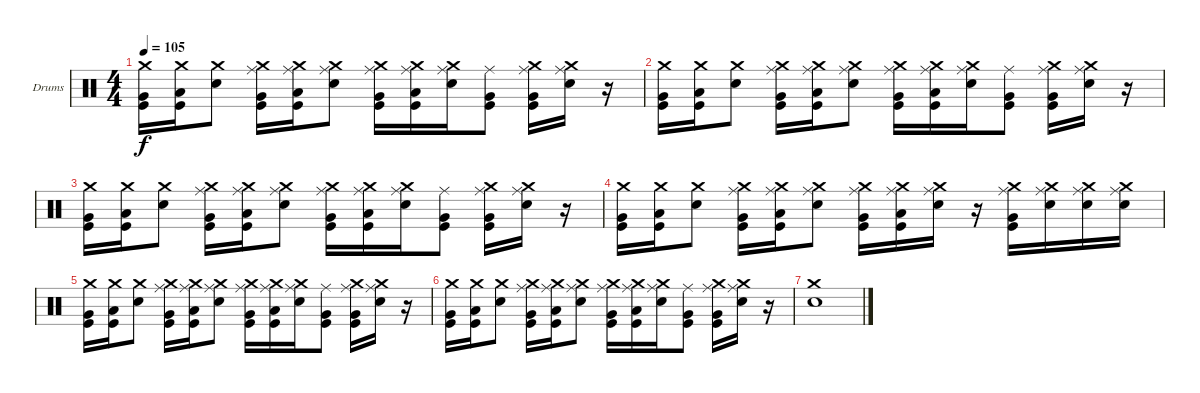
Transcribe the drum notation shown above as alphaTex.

\defaultSystemsLayout 4
\bracketExtendMode groupsimilarinstruments
\firstSystemTrackNameOrientation horizontal
\otherSystemsTrackNameOrientation horizontal
\track ("Steve" "Drums") {instrument percussion}
\staff {score}
\articulation defaults
\ts (4 4)
\tempo 105
\clef neutral
\ks c
("Very Low Tom (hit)" "Crash medium (hit)" "Kick (hit)").16{dy f} ("Low Tom (hit)" "Crash medium (hit)" "Kick (hit)").16 ("Snare (hit) 2" "Crash medium (hit)").8 ("Very Low Tom (hit)" "Ride (middle)" "Kick (hit)" "Crash medium (hit)").16 ("Low Tom (hit)" "Ride (middle)" "Kick (hit)" "Crash medium (hit)").16 ("Snare (hit) 2" "Ride (middle)" "Crash medium (hit)").8 ("Very Low Tom (hit)" "Ride (middle)" "Kick (hit)" "Crash medium (hit)").16 ("Low Tom (hit)" "Ride (middle)" "Kick (hit)" "Crash medium (hit)").16 ("Snare (hit) 2" "Ride (middle)" "Crash medium (hit)").16 ("Very Low Tom (hit)" "Ride (middle)" "Kick (hit)").8 ("Very Low Tom (hit)" "Ride (middle)" "Kick (hit)" "Crash medium (hit)").16 ("Snare (hit) 2" "Ride (middle)" "Crash medium (hit)").16 r.16 |
("Very Low Tom (hit)" "Crash medium (hit)" "Kick (hit)").16 ("Low Tom (hit)" "Crash medium (hit)" "Kick (hit)").16 ("Snare (hit) 2" "Crash medium (hit)").8 ("Very Low Tom (hit)" "Ride (middle)" "Kick (hit)" "Crash medium (hit)").16 ("Low Tom (hit)" "Ride (middle)" "Kick (hit)" "Crash medium (hit)").16 ("Snare (hit) 2" "Ride (middle)" "Crash medium (hit)").8 ("Very Low Tom (hit)" "Ride (middle)" "Kick (hit)" "Crash medium (hit)").16 ("Low Tom (hit)" "Ride (middle)" "Kick (hit)" "Crash medium (hit)").16 ("Snare (hit) 2" "Ride (middle)" "Crash medium (hit)").16 ("Very Low Tom (hit)" "Ride (middle)" "Kick (hit)").8 ("Very Low Tom (hit)" "Ride (middle)" "Kick (hit)" "Crash medium (hit)").16 ("Snare (hit) 2" "Ride (middle)" "Crash medium (hit)").16 r.16 |
("Very Low Tom (hit)" "Crash medium (hit)" "Kick (hit)").16 ("Low Tom (hit)" "Crash medium (hit)" "Kick (hit)").16 ("Snare (hit) 2" "Crash medium (hit)").8 ("Very Low Tom (hit)" "Ride (middle)" "Kick (hit)" "Crash medium (hit)").16 ("Low Tom (hit)" "Ride (middle)" "Kick (hit)" "Crash medium (hit)").16 ("Snare (hit) 2" "Ride (middle)" "Crash medium (hit)").8 ("Very Low Tom (hit)" "Ride (middle)" "Kick (hit)" "Crash medium (hit)").16 ("Low Tom (hit)" "Ride (middle)" "Kick (hit)" "Crash medium (hit)").16 ("Snare (hit) 2" "Ride (middle)" "Crash medium (hit)").16 ("Very Low Tom (hit)" "Ride (middle)" "Kick (hit)").8 ("Very Low Tom (hit)" "Ride (middle)" "Kick (hit)" "Crash medium (hit)").16 ("Snare (hit) 2" "Ride (middle)" "Crash medium (hit)").16 r.16 |
("Very Low Tom (hit)" "Crash medium (hit)" "Kick (hit)").16 ("Low Tom (hit)" "Crash medium (hit)" "Kick (hit)").16 ("Snare (hit) 2" "Crash medium (hit)").8 ("Very Low Tom (hit)" "Ride (middle)" "Kick (hit)" "Crash medium (hit)").16 ("Low Tom (hit)" "Ride (middle)" "Kick (hit)" "Crash medium (hit)").16 ("Snare (hit) 2" "Ride (middle)" "Crash medium (hit)").8 ("Very Low Tom (hit)" "Ride (middle)" "Kick (hit)" "Crash medium (hit)").16 ("Low Tom (hit)" "Ride (middle)" "Kick (hit)" "Crash medium (hit)").16 ("Snare (hit) 2" "Ride (middle)" "Crash medium (hit)").16 r.16 ("Very Low Tom (hit)" "Ride (middle)" "Kick (hit)" "Crash medium (hit)").16 ("Snare (hit) 2" "Ride (middle)" "Crash medium (hit)").16 ("Snare (hit) 2" "Ride (middle)" "Crash medium (hit)").16 ("Snare (hit) 2" "Ride (middle)" "Crash medium (hit)").16 |
("Very Low Tom (hit)" "Crash medium (hit)" "Kick (hit)").16 ("Low Tom (hit)" "Crash medium (hit)" "Kick (hit)").16 ("Snare (hit) 2" "Crash medium (hit)").8 ("Very Low Tom (hit)" "Ride (middle)" "Kick (hit)" "Crash medium (hit)").16 ("Low Tom (hit)" "Ride (middle)" "Kick (hit)" "Crash medium (hit)").16 ("Snare (hit) 2" "Ride (middle)" "Crash medium (hit)").8 ("Very Low Tom (hit)" "Ride (middle)" "Kick (hit)" "Crash medium (hit)").16 ("Low Tom (hit)" "Ride (middle)" "Kick (hit)" "Crash medium (hit)").16 ("Snare (hit) 2" "Ride (middle)" "Crash medium (hit)").16 ("Very Low Tom (hit)" "Ride (middle)" "Kick (hit)").8 ("Very Low Tom (hit)" "Ride (middle)" "Kick (hit)" "Crash medium (hit)").16 ("Snare (hit) 2" "Ride (middle)" "Crash medium (hit)").16 r.16 |
("Very Low Tom (hit)" "Crash medium (hit)" "Kick (hit)").16 ("Low Tom (hit)" "Crash medium (hit)" "Kick (hit)").16 ("Snare (hit) 2" "Crash medium (hit)").8 ("Very Low Tom (hit)" "Ride (middle)" "Kick (hit)" "Crash medium (hit)").16 ("Low Tom (hit)" "Ride (middle)" "Kick (hit)" "Crash medium (hit)").16 ("Snare (hit) 2" "Ride (middle)" "Crash medium (hit)").8 ("Very Low Tom (hit)" "Ride (middle)" "Kick (hit)" "Crash medium (hit)").16 ("Low Tom (hit)" "Ride (middle)" "Kick (hit)" "Crash medium (hit)").16 ("Snare (hit) 2" "Ride (middle)" "Crash medium (hit)").16 ("Very Low Tom (hit)" "Ride (middle)" "Kick (hit)").8 ("Very Low Tom (hit)" "Ride (middle)" "Kick (hit)" "Crash medium (hit)").16 ("Snare (hit) 2" "Ride (middle)" "Crash medium (hit)").16 r.16 |
("Snare (hit) 2" "Crash medium (hit)").1
